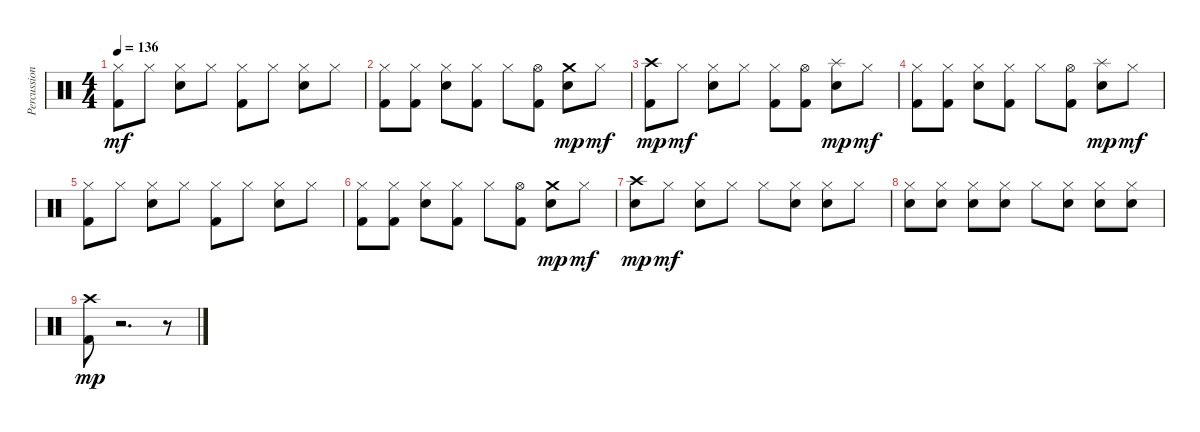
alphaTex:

\track ("Percussions" "Percussion") {instrument percussion}
\staff {score}
\articulation defaults
\ts (4 4)
\tempo 136
\clef neutral
\ks c
("Hi-Hat (closed)" "Kick (hit) 2").8{dy mf} "Hi-Hat (closed)".8 ("Hi-Hat (closed)" "Electric Snare (hit)").8 "Hi-Hat (closed)".8 ("Hi-Hat (closed)" "Kick (hit) 2").8 "Hi-Hat (closed)".8 ("Hi-Hat (closed)" "Electric Snare (hit)").8 "Hi-Hat (closed)".8 |
("Hi-Hat (closed)" "Kick (hit) 2").8 ("Hi-Hat (closed)" "Kick (hit) 2").8 ("Hi-Hat (closed)" "Electric Snare (hit)").8 ("Hi-Hat (closed)" "Kick (hit) 2").8 "Hi-Hat (closed)".8 ("Hi-Hat (open)" "Kick (hit) 2").8 ("Crash medium (hit)" "Electric Snare (hit)").8{dy mp} "Hi-Hat (closed)".8{dy mf} |
("Crash high (hit)" "Kick (hit) 2").8{dy mp} "Hi-Hat (closed)".8{dy mf} ("Hi-Hat (closed)" "Electric Snare (hit)").8 "Hi-Hat (closed)".8 ("Hi-Hat (closed)" "Kick (hit) 2").8 ("Hi-Hat (open)" "Kick (hit) 2").8 ("Splash (hit)" "Electric Snare (hit)").8{dy mp} "Hi-Hat (closed)".8{dy mf} |
("Hi-Hat (closed)" "Kick (hit) 2").8 ("Hi-Hat (closed)" "Kick (hit) 2").8 ("Hi-Hat (closed)" "Electric Snare (hit)").8 ("Hi-Hat (closed)" "Kick (hit) 2").8 "Hi-Hat (closed)".8 ("Hi-Hat (open)" "Kick (hit) 2").8 ("Splash (hit)" "Electric Snare (hit)").8{dy mp} "Hi-Hat (closed)".8{dy mf} |
("Hi-Hat (closed)" "Kick (hit) 2").8 "Hi-Hat (closed)".8 ("Hi-Hat (closed)" "Electric Snare (hit)").8 "Hi-Hat (closed)".8 ("Hi-Hat (closed)" "Kick (hit) 2").8 "Hi-Hat (closed)".8 ("Hi-Hat (closed)" "Electric Snare (hit)").8 "Hi-Hat (closed)".8 |
("Hi-Hat (closed)" "Kick (hit) 2").8 ("Hi-Hat (closed)" "Kick (hit) 2").8 ("Hi-Hat (closed)" "Electric Snare (hit)").8 ("Hi-Hat (closed)" "Kick (hit) 2").8 "Hi-Hat (closed)".8 ("Hi-Hat (open)" "Kick (hit) 2").8 ("Crash medium (hit)" "Electric Snare (hit)").8{dy mp} "Hi-Hat (closed)".8{dy mf} |
("Crash high (hit)" "Electric Snare (hit)").8{dy mp} "Hi-Hat (closed)".8{dy mf} ("Hi-Hat (closed)" "Electric Snare (hit)").8 "Hi-Hat (closed)".8 "Hi-Hat (closed)".8 ("Hi-Hat (closed)" "Electric Snare (hit)").8 ("Hi-Hat (closed)" "Electric Snare (hit)").8 "Hi-Hat (closed)".8 |
("Hi-Hat (closed)" "Electric Snare (hit)").8 ("Hi-Hat (closed)" "Electric Snare (hit)").8 ("Hi-Hat (closed)" "Electric Snare (hit)").8 ("Hi-Hat (closed)" "Electric Snare (hit)").8 "Hi-Hat (closed)".8 ("Hi-Hat (closed)" "Electric Snare (hit)").8 ("Hi-Hat (closed)" "Electric Snare (hit)").8 ("Hi-Hat (closed)" "Electric Snare (hit)").8 |
("Crash high (hit)" "Kick (hit) 2").8{dy mp} r.2{d} r.8
